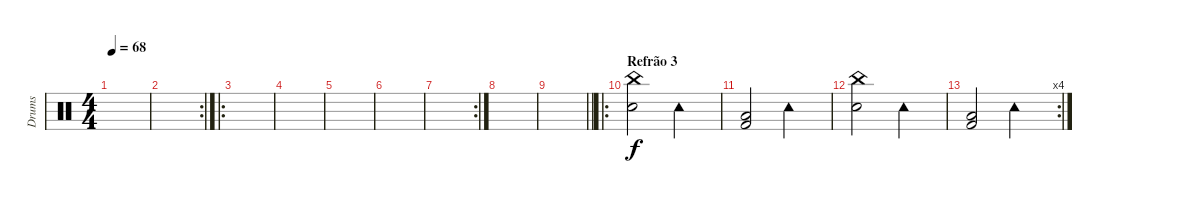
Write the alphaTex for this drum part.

\track ("Drums" "Drums") {instrument percussion}
\staff {score}
\articulation defaults
\ts (4 4)
\tempo 68
\clef neutral
\ks c
|
\rc 2
|
\ro
|
|
|
|
\rc 2
|
|
\barLineRight lightlight
|
\ro
\section ("" "Refrão 3")
("China (hit)" "Snare (hit) 2").2 "Tambourine (hit)".2 |
("Low Floor Tom (hit)" "Kick (hit) 2").2 "Tambourine (hit)".2 |
("China (hit)" "Snare (hit) 2").2 "Tambourine (hit)".2 |
\rc 4
("Low Floor Tom (hit)" "Kick (hit) 2").2 "Tambourine (hit)".2
